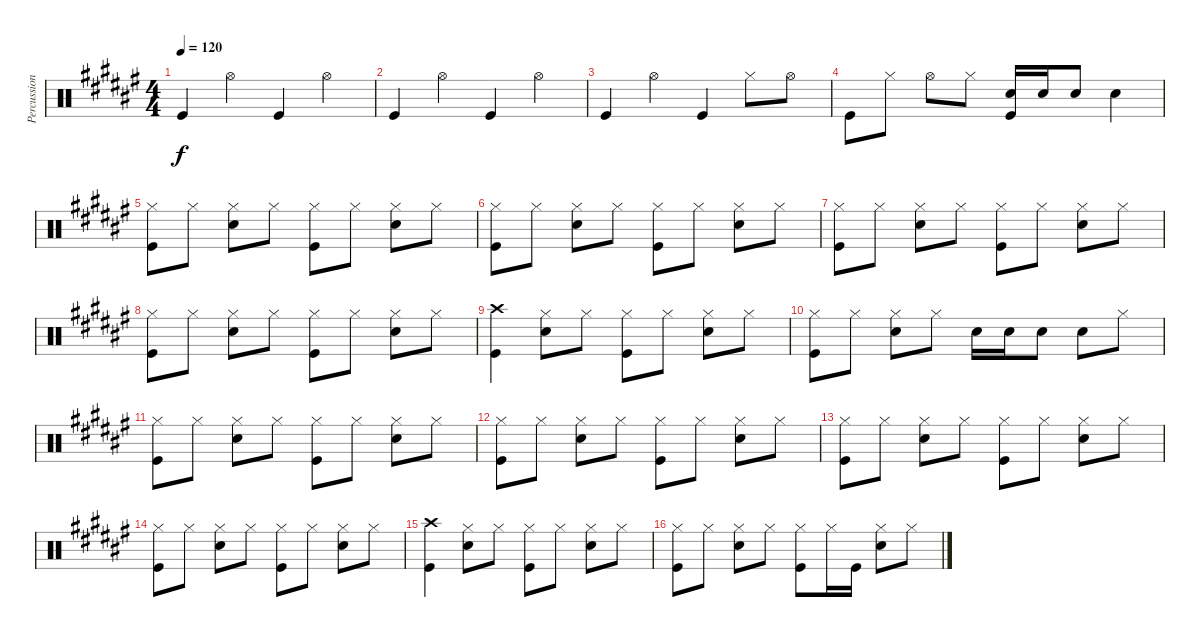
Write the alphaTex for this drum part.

\track ("Percussion" "Percussion") {instrument percussion}
\staff {score}
\articulation defaults
\ts (4 4)
\tempo 120
\clef neutral
\ks f# "Kick (hit)".4{dy f} "Hi-Hat (open)".4 "Kick (hit)".4 "Hi-Hat (open)".4
|
"Kick (hit)".4 "Hi-Hat (open)".4 "Kick (hit)".4 "Hi-Hat (open)".4 |
"Kick (hit)".4 "Hi-Hat (open)".4 "Kick (hit)".4 "Hi-Hat (closed)".8 "Hi-Hat (open)".8 |
"Kick (hit)".8 "Hi-Hat (closed)".8 "Hi-Hat (open)".8 "Hi-Hat (closed)".8 ("Snare (hit) 2" "Kick (hit)").16 "Snare (hit) 2".16 "Snare (hit) 2".8 "Snare (hit) 2".4 |
("Hi-Hat (closed)" "Kick (hit)").8 "Hi-Hat (closed)".8 ("Hi-Hat (closed)" "Snare (hit) 2").8 "Hi-Hat (closed)".8 ("Hi-Hat (closed)" "Kick (hit)").8 "Hi-Hat (closed)".8 ("Hi-Hat (closed)" "Snare (hit) 2").8 "Hi-Hat (closed)".8 |
("Hi-Hat (closed)" "Kick (hit)").8 "Hi-Hat (closed)".8 ("Hi-Hat (closed)" "Snare (hit) 2").8 "Hi-Hat (closed)".8 ("Hi-Hat (closed)" "Kick (hit)").8 "Hi-Hat (closed)".8 ("Hi-Hat (closed)" "Snare (hit) 2").8 "Hi-Hat (closed)".8 |
("Hi-Hat (closed)" "Kick (hit)").8 "Hi-Hat (closed)".8 ("Hi-Hat (closed)" "Snare (hit) 2").8 "Hi-Hat (closed)".8 ("Hi-Hat (closed)" "Kick (hit)").8 "Hi-Hat (closed)".8 ("Hi-Hat (closed)" "Snare (hit) 2").8 "Hi-Hat (closed)".8 |
("Hi-Hat (closed)" "Kick (hit)").8 "Hi-Hat (closed)".8 ("Hi-Hat (closed)" "Snare (hit) 2").8 "Hi-Hat (closed)".8 ("Hi-Hat (closed)" "Kick (hit)").8 "Hi-Hat (closed)".8 ("Hi-Hat (closed)" "Snare (hit) 2").8 "Hi-Hat (closed)".8 |
("Crash high (hit)" "Kick (hit)").4 ("Hi-Hat (closed)" "Snare (hit) 2").8 "Hi-Hat (closed)".8 ("Hi-Hat (closed)" "Kick (hit)").8 "Hi-Hat (closed)".8 ("Hi-Hat (closed)" "Snare (hit) 2").8 "Hi-Hat (closed)".8 |
("Hi-Hat (closed)" "Kick (hit)").8 "Hi-Hat (closed)".8 ("Hi-Hat (closed)" "Snare (hit) 2").8 "Hi-Hat (closed)".8 "Snare (hit) 2".16 "Snare (hit) 2".16 "Snare (hit) 2".8 "Snare (hit) 2".8 "Hi-Hat (closed)".8 |
("Hi-Hat (closed)" "Kick (hit)").8 "Hi-Hat (closed)".8 ("Hi-Hat (closed)" "Snare (hit) 2").8 "Hi-Hat (closed)".8 ("Hi-Hat (closed)" "Kick (hit)").8 "Hi-Hat (closed)".8 ("Hi-Hat (closed)" "Snare (hit) 2").8 "Hi-Hat (closed)".8 |
("Hi-Hat (closed)" "Kick (hit)").8 "Hi-Hat (closed)".8 ("Hi-Hat (closed)" "Snare (hit) 2").8 "Hi-Hat (closed)".8 ("Hi-Hat (closed)" "Kick (hit)").8 "Hi-Hat (closed)".8 ("Hi-Hat (closed)" "Snare (hit) 2").8 "Hi-Hat (closed)".8 |
("Hi-Hat (closed)" "Kick (hit)").8 "Hi-Hat (closed)".8 ("Hi-Hat (closed)" "Snare (hit) 2").8 "Hi-Hat (closed)".8 ("Hi-Hat (closed)" "Kick (hit)").8 "Hi-Hat (closed)".8 ("Hi-Hat (closed)" "Snare (hit) 2").8 "Hi-Hat (closed)".8 |
("Hi-Hat (closed)" "Kick (hit)").8 "Hi-Hat (closed)".8 ("Hi-Hat (closed)" "Snare (hit) 2").8 "Hi-Hat (closed)".8 ("Hi-Hat (closed)" "Kick (hit)").8 "Hi-Hat (closed)".8 ("Hi-Hat (closed)" "Snare (hit) 2").8 "Hi-Hat (closed)".8 |
("Crash high (hit)" "Kick (hit)").4 ("Hi-Hat (closed)" "Snare (hit) 2").8 "Hi-Hat (closed)".8 ("Hi-Hat (closed)" "Kick (hit)").8 "Hi-Hat (closed)".8 ("Hi-Hat (closed)" "Snare (hit) 2").8 "Hi-Hat (closed)".8 |
("Hi-Hat (closed)" "Kick (hit)").8 "Hi-Hat (closed)".8 ("Hi-Hat (closed)" "Snare (hit) 2").8 "Hi-Hat (closed)".8 ("Hi-Hat (closed)" "Kick (hit)").8 "Hi-Hat (closed)".16 "Kick (hit)".16 ("Hi-Hat (closed)" "Snare (hit) 2").8 "Hi-Hat (closed)".8
